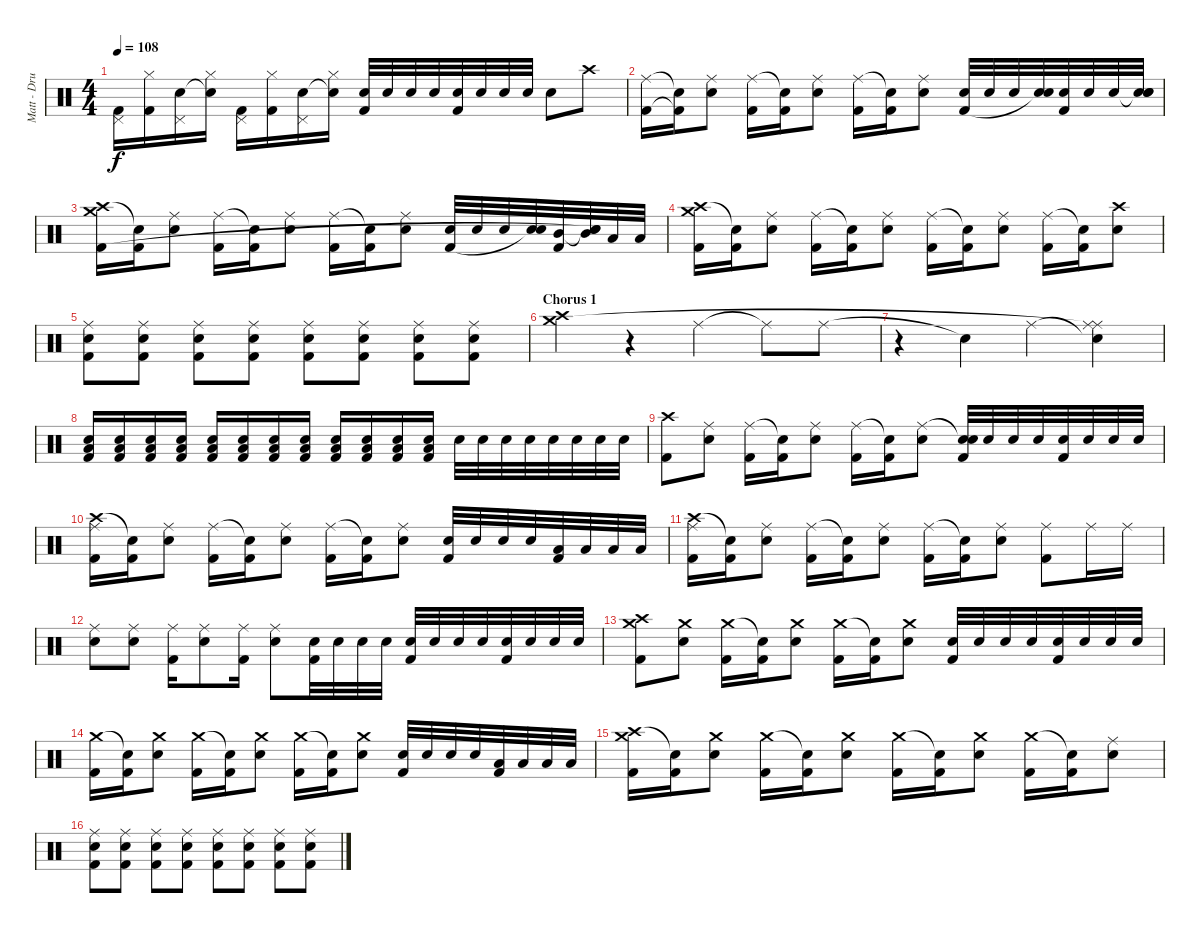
\track ("Matt - Drums" "Matt - Dru") {instrument percussion}
\staff {score}
\articulation defaults
\ts (4 4)
\tempo 108
\clef neutral
\ks c
("Pedal Hi-Hat (hit)" "Kick (hit) 2").16{dy f} ("Hi-Hat (closed)" "Kick (hit) 2").16 ("Pedal Hi-Hat (hit)" "Snare (hit) 2").16 ("Hi-Hat (closed)" "Snare (hit)"{t}).16 ("Pedal Hi-Hat (hit)" "Kick (hit) 2").16 ("Hi-Hat (closed)" "Kick (hit) 2").16 ("Pedal Hi-Hat (hit)" "Snare (hit) 2").16 ("Hi-Hat (closed)" "Snare (hit)"{t}).16 ("Snare (hit) 2" "Kick (hit) 2").32 "Snare (hit) 2".32 "Snare (hit) 2".32 "Snare (hit) 2".32 ("Snare (hit) 2" "Kick (hit) 2").32 "Snare (hit) 2".32 "Snare (hit) 2".32 "Snare (hit) 2".32 "Snare (hit) 2".8 "Crash high (hit)".8 |
("Ride (middle)" "Kick (hit) 2").16 ("Snare (hit)"{t} "Kick (hit) 2"{t}).16 ("Ride (middle)" "Snare (hit) 2").8 ("Ride (middle)" "Kick (hit) 2").16 ("Snare (hit)"{t} "Kick (hit) 2").16 ("Ride (middle)" "Snare (hit) 2").8 ("Ride (middle)" "Kick (hit) 2").16 ("Snare (hit)"{t} "Kick (hit) 2").16 ("Ride (middle)" "Snare (hit) 2").8 ("Snare (hit) 2" "Kick (hit) 2").32 "Snare (hit) 2".32 "Snare (hit) 2".32 ("Snare (hit) 2" "Snare (hit)"{t}).32 ("Snare (hit) 2" "Kick (hit) 2").32 "Snare (hit) 2".32 "Snare (hit) 2".32 ("Snare (hit)"{t} "Snare (hit) 2" "Snare (hit)").32 |
("Crash high (hit)" "Crash medium (hit)" "Kick (hit) 2").16 ("Snare (hit)"{t} "Kick (hit) 2").16 ("Ride (middle)" "Snare (hit) 2").8 ("Ride (middle)" "Kick (hit) 2").16 ("Snare (hit)"{t} "Kick (hit) 2").16 ("Ride (middle)" "Snare (hit) 2").8 ("Ride (middle)" "Kick (hit) 2").16 ("Snare (hit)"{t} "Kick (hit) 2").16 ("Ride (middle)" "Snare (hit) 2").8 ("Snare (hit) 2" "Kick (hit) 2").32 "Snare (hit) 2".32 "Snare (hit) 2".32 ("Snare (hit) 2" "Snare (hit)"{t}).32 ("Mid Tom (hit)" "Kick (hit) 2").32 ("Snare (hit)"{t} "Mid Tom (hit)" "Snare (hit)"{t}).32 "Low Tom (hit)".32 "Low Tom (hit)".32 |
("Crash high (hit)" "Crash medium (hit)" "Kick (hit) 2").16 ("Snare (hit)"{t} "Kick (hit) 2").16 ("Ride (middle)" "Snare (hit) 2").8 ("Ride (middle)" "Kick (hit) 2").16 ("Snare (hit)"{t} "Kick (hit) 2").16 ("Ride (middle)" "Snare (hit) 2").8 ("Ride (middle)" "Kick (hit) 2").16 ("Snare (hit)"{t} "Kick (hit) 2").16 ("Ride (middle)" "Snare (hit) 2").8 ("Ride (middle)" "Kick (hit) 2").16 ("Snare (hit)"{t} "Kick (hit) 2").16 ("Crash high (hit)" "Snare (hit) 2").8 |
("Ride (middle)" "Snare (hit) 2" "Kick (hit) 2").8 ("Ride (middle)" "Snare (hit) 2" "Kick (hit) 2").8 ("Ride (middle)" "Snare (hit) 2" "Kick (hit) 2").8 ("Ride (middle)" "Snare (hit) 2" "Kick (hit) 2").8 ("Ride (middle)" "Snare (hit) 2" "Kick (hit) 2").8 ("Ride (middle)" "Snare (hit) 2" "Kick (hit) 2").8 ("Ride (middle)" "Snare (hit) 2" "Kick (hit) 2").8 ("Ride (middle)" "Snare (hit) 2" "Kick (hit) 2").8 |
\section ("" "Chorus 1")
("Crash high (hit)" "Crash medium (hit)").4 r.4 "Ride (middle)".4 "Ride (middle)"{t}.8 "Ride (middle)".8 |
r.4 "Snare (hit)"{t}.4 "Ride (middle)".4 ("Snare (hit)"{t} "Ride (middle)"{t} "Ride (middle)").4 |
("Snare (hit) 2" "Low Floor Tom (hit)" "Kick (hit) 2").16 ("Snare (hit) 2" "Low Floor Tom (hit)" "Kick (hit) 2").16 ("Snare (hit) 2" "Low Floor Tom (hit)" "Kick (hit) 2").16 ("Snare (hit) 2" "Low Floor Tom (hit)" "Kick (hit) 2").16 ("Snare (hit) 2" "Low Floor Tom (hit)" "Kick (hit) 2").16 ("Snare (hit) 2" "Low Floor Tom (hit)" "Kick (hit) 2").16 ("Snare (hit) 2" "Low Floor Tom (hit)" "Kick (hit) 2").16 ("Snare (hit) 2" "Low Floor Tom (hit)" "Kick (hit) 2").16 ("Snare (hit) 2" "Low Floor Tom (hit)" "Kick (hit) 2").16 ("Snare (hit) 2" "Low Floor Tom (hit)" "Kick (hit) 2").16 ("Snare (hit) 2" "Low Floor Tom (hit)" "Kick (hit) 2").16 ("Snare (hit) 2" "Low Floor Tom (hit)" "Kick (hit) 2").16 "Snare (hit) 2".32 "Snare (hit) 2".32 "Snare (hit) 2".32 "Snare (hit) 2".32 "Snare (hit) 2".32 "Snare (hit) 2".32 "Snare (hit) 2".32 "Snare (hit) 2".32 |
("Crash high (hit)" "Kick (hit) 2").8 ("Ride (middle)" "Snare (hit) 2").8 ("Ride (middle)" "Kick (hit) 2").16 ("Snare (hit)"{t} "Kick (hit) 2").16 ("Ride (middle)" "Snare (hit) 2").8 ("Ride (middle)" "Kick (hit) 2").16 ("Snare (hit)"{t} "Kick (hit) 2").16 ("Ride (middle)" "Snare (hit) 2").8 ("Snare (hit)"{t} "Snare (hit) 2" "Kick (hit) 2").32 "Snare (hit) 2".32 "Snare (hit) 2".32 "Snare (hit) 2".32 ("Snare (hit) 2" "Kick (hit) 2").32 "Snare (hit) 2".32 "Snare (hit) 2".32 "Snare (hit) 2".32 |
("Crash high (hit)" "Ride (middle)" "Kick (hit) 2").16 ("Snare (hit)"{t} "Kick (hit) 2").16 ("Ride (middle)" "Snare (hit) 2").8 ("Ride (middle)" "Kick (hit) 2").16 ("Snare (hit)"{t} "Kick (hit) 2").16 ("Ride (middle)" "Snare (hit) 2").8 ("Ride (middle)" "Kick (hit) 2").16 ("Snare (hit)"{t} "Kick (hit) 2").16 ("Ride (middle)" "Snare (hit) 2").8 ("Snare (hit) 2" "Kick (hit) 2").32 "Snare (hit) 2".32 "Snare (hit) 2".32 "Snare (hit) 2".32 ("Low Tom (hit)" "Kick (hit) 2").32 "Low Tom (hit)".32 "Low Floor Tom (hit)".32 "Low Floor Tom (hit)".32 |
("Crash high (hit)" "Ride (middle)" "Kick (hit) 2").16 ("Snare (hit)"{t} "Kick (hit) 2").16 ("Ride (middle)" "Snare (hit) 2").8 ("Ride (middle)" "Kick (hit) 2").16 ("Snare (hit)"{t} "Kick (hit) 2").16 ("Ride (middle)" "Snare (hit) 2").8 ("Ride (middle)" "Kick (hit) 2").16 ("Snare (hit)"{t} "Kick (hit) 2").16 ("Ride (middle)" "Snare (hit) 2").8 ("Ride (middle)" "Kick (hit) 2").8 "Ride (middle)".16 "Ride (middle)".16 |
("Ride (middle)" "Snare (hit) 2").8 ("Ride (middle)" "Snare (hit) 2").8 ("Ride (middle)" "Kick (hit) 2").16 ("Ride (middle)" "Snare (hit) 2").8 ("Ride (middle)" "Kick (hit) 2").16 ("Ride (middle)" "Snare (hit) 2").8 ("Snare (hit) 2" "Kick (hit) 2").32 "Snare (hit) 2".32 "Snare (hit) 2".32 "Snare (hit) 2".32 ("Snare (hit) 2" "Kick (hit) 2").32 "Snare (hit) 2".32 "Snare (hit) 2".32 "Snare (hit) 2".32 ("Snare (hit) 2" "Kick (hit) 2").32 "Snare (hit) 2".32 "Snare (hit) 2".32 "Snare (hit) 2".32 |
("Crash high (hit)" "Crash medium (hit)" "Kick (hit) 2").8 ("Crash medium (hit)" "Snare (hit) 2").8 ("Crash medium (hit)" "Kick (hit) 2").16 ("Snare (hit)"{t} "Kick (hit) 2").16 ("Crash medium (hit)" "Snare (hit) 2").8 ("Crash medium (hit)" "Kick (hit) 2").16 ("Snare (hit)"{t} "Kick (hit) 2").16 ("Crash medium (hit)" "Snare (hit) 2").8 ("Snare (hit) 2" "Kick (hit) 2").32 "Snare (hit) 2".32 "Snare (hit) 2".32 "Snare (hit) 2".32 ("Snare (hit) 2" "Kick (hit) 2").32 "Snare (hit) 2".32 "Snare (hit) 2".32 "Snare (hit) 2".32 |
("Crash medium (hit)" "Kick (hit) 2").16 ("Snare (hit)"{t} "Kick (hit) 2").16 ("Crash medium (hit)" "Snare (hit) 2").8 ("Crash medium (hit)" "Kick (hit) 2").16 ("Snare (hit)"{t} "Kick (hit) 2").16 ("Crash medium (hit)" "Snare (hit) 2").8 ("Crash medium (hit)" "Kick (hit) 2").16 ("Snare (hit)"{t} "Kick (hit) 2").16 ("Crash medium (hit)" "Snare (hit) 2").8 ("Snare (hit) 2" "Kick (hit) 2").32 "Snare (hit) 2".32 "Snare (hit) 2".32 "Snare (hit) 2".32 ("Low Tom (hit)" "Kick (hit) 2").32 "Low Tom (hit)".32 "Low Floor Tom (hit)".32 "Low Floor Tom (hit)".32 |
("Crash high (hit)" "Crash medium (hit)" "Kick (hit) 2").16 ("Snare (hit)"{t} "Kick (hit) 2").16 ("Crash medium (hit)" "Snare (hit) 2").8 ("Crash medium (hit)" "Kick (hit) 2").16 ("Snare (hit)"{t} "Kick (hit) 2").16 ("Crash medium (hit)" "Snare (hit) 2").8 ("Crash medium (hit)" "Kick (hit) 2").16 ("Snare (hit)"{t} "Kick (hit) 2").16 ("Crash medium (hit)" "Snare (hit) 2").8 ("Crash medium (hit)" "Kick (hit) 2").16 ("Snare (hit)"{t} "Kick (hit) 2").16 ("Ride (middle)" "Snare (hit) 2").8 |
("Ride (middle)" "Snare (hit) 2" "Kick (hit) 2").8 ("Ride (middle)" "Snare (hit) 2" "Kick (hit) 2").8 ("Ride (middle)" "Snare (hit) 2" "Kick (hit) 2").8 ("Ride (middle)" "Snare (hit) 2" "Kick (hit) 2").8 ("Ride (middle)" "Snare (hit) 2" "Kick (hit) 2").8 ("Ride (middle)" "Snare (hit) 2" "Kick (hit) 2").8 ("Ride (middle)" "Snare (hit) 2" "Kick (hit) 2").8 ("Ride (middle)" "Snare (hit) 2" "Kick (hit) 2").8
